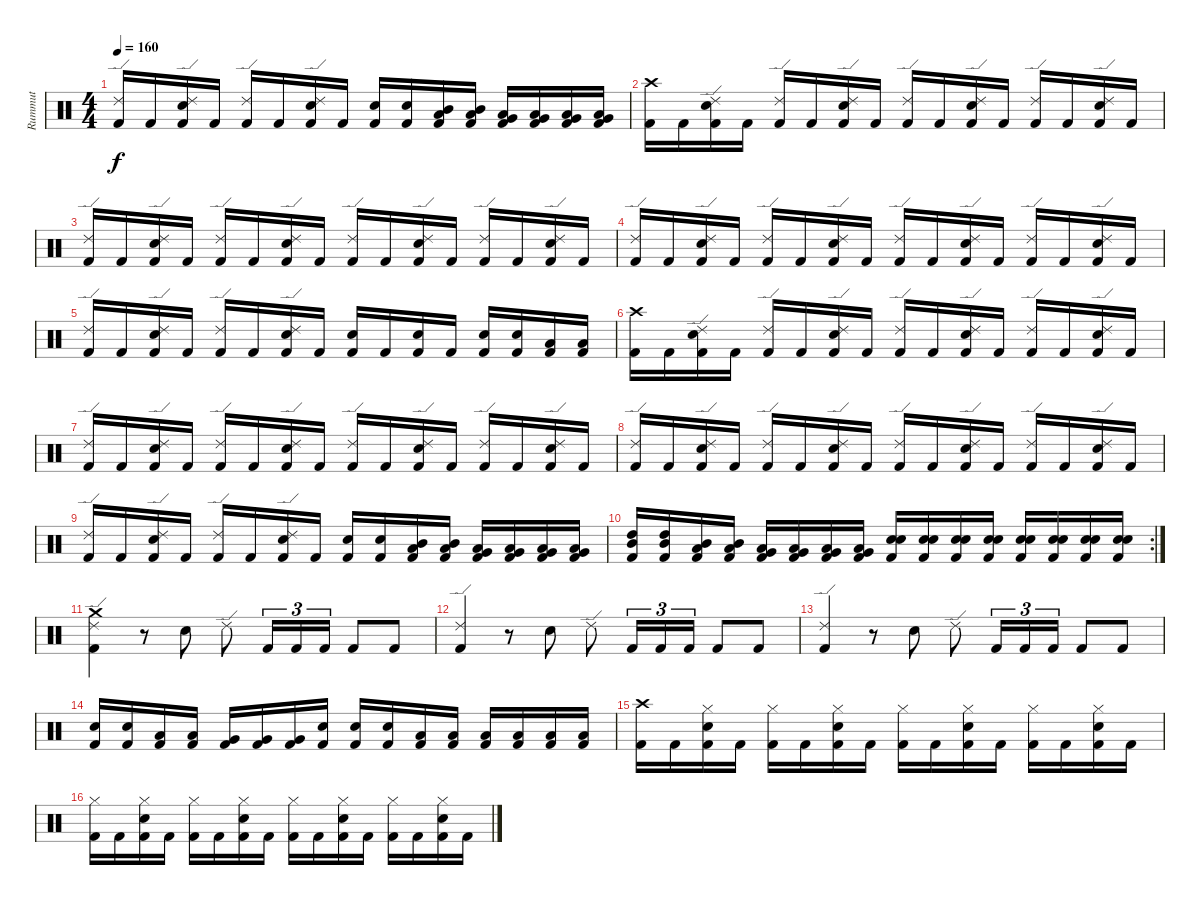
\track ("Rummut" "Rummut") {instrument percussion}
\staff {score}
\articulation defaults
\ts (4 4)
\tempo 160
\clef neutral
\ks c
("Ride (edge) 2" "Kick (hit) 2").16{dy f} "Kick (hit) 2".16 ("Ride (edge) 2" "Snare (hit) 2" "Kick (hit) 2").16 "Kick (hit) 2".16 ("Ride (edge) 2" "Kick (hit) 2").16 "Kick (hit) 2".16 ("Ride (edge) 2" "Snare (hit) 2" "Kick (hit) 2").16 "Kick (hit) 2".16 ("Snare (hit) 2" "Kick (hit) 2").16 ("Snare (hit) 2" "Kick (hit) 2").16 ("Low Tom (hit)" "Mid Tom (hit)" "Kick (hit) 2").16 ("Low Tom (hit)" "Mid Tom (hit)" "Kick (hit) 2").16 ("Very Low Tom (hit)" "Low Tom (hit)" "Kick (hit) 2").16 ("Very Low Tom (hit)" "Low Tom (hit)" "Kick (hit) 2").16 ("Low Floor Tom (hit)" "Very Low Tom (hit)" "Kick (hit) 2").16 ("Low Floor Tom (hit)" "Very Low Tom (hit)" "Kick (hit) 2").16 |
("Crash high (hit)" "Kick (hit) 2").16 "Kick (hit) 2".16 ("Ride (edge) 2" "Snare (hit) 2" "Kick (hit) 2").16 "Kick (hit) 2".16 ("Ride (edge) 2" "Kick (hit) 2").16 "Kick (hit) 2".16 ("Ride (edge) 2" "Snare (hit) 2" "Kick (hit) 2").16 "Kick (hit) 2".16 ("Ride (edge) 2" "Kick (hit) 2").16 "Kick (hit) 2".16 ("Ride (edge) 2" "Snare (hit) 2" "Kick (hit) 2").16 "Kick (hit) 2".16 ("Ride (edge) 2" "Kick (hit) 2").16 "Kick (hit) 2".16 ("Ride (edge) 2" "Snare (hit) 2" "Kick (hit) 2").16 "Kick (hit) 2".16 |
("Ride (edge) 2" "Kick (hit) 2").16 "Kick (hit) 2".16 ("Ride (edge) 2" "Snare (hit) 2" "Kick (hit) 2").16 "Kick (hit) 2".16 ("Ride (edge) 2" "Kick (hit) 2").16 "Kick (hit) 2".16 ("Ride (edge) 2" "Snare (hit) 2" "Kick (hit) 2").16 "Kick (hit) 2".16 ("Ride (edge) 2" "Kick (hit) 2").16 "Kick (hit) 2".16 ("Ride (edge) 2" "Snare (hit) 2" "Kick (hit) 2").16 "Kick (hit) 2".16 ("Ride (edge) 2" "Kick (hit) 2").16 "Kick (hit) 2".16 ("Ride (edge) 2" "Snare (hit) 2" "Kick (hit) 2").16 "Kick (hit) 2".16 |
("Ride (edge) 2" "Kick (hit) 2").16 "Kick (hit) 2".16 ("Ride (edge) 2" "Snare (hit) 2" "Kick (hit) 2").16 "Kick (hit) 2".16 ("Ride (edge) 2" "Kick (hit) 2").16 "Kick (hit) 2".16 ("Ride (edge) 2" "Snare (hit) 2" "Kick (hit) 2").16 "Kick (hit) 2".16 ("Ride (edge) 2" "Kick (hit) 2").16 "Kick (hit) 2".16 ("Ride (edge) 2" "Snare (hit) 2" "Kick (hit) 2").16 "Kick (hit) 2".16 ("Ride (edge) 2" "Kick (hit) 2").16 "Kick (hit) 2".16 ("Ride (edge) 2" "Snare (hit) 2" "Kick (hit) 2").16 "Kick (hit) 2".16 |
("Ride (edge) 2" "Kick (hit) 2").16 "Kick (hit) 2".16 ("Ride (edge) 2" "Snare (hit) 2" "Kick (hit) 2").16 "Kick (hit) 2".16 ("Ride (edge) 2" "Kick (hit) 2").16 "Kick (hit) 2".16 ("Ride (edge) 2" "Snare (hit) 2" "Kick (hit) 2").16 "Kick (hit) 2".16 ("Snare (hit) 2" "Kick (hit) 2").16 "Kick (hit) 2".16 ("Snare (hit) 2" "Kick (hit) 2").16 "Kick (hit) 2".16 ("Snare (hit) 2" "Kick (hit) 2").16 ("Snare (hit) 2" "Kick (hit) 2").16 ("Low Tom (hit)" "Kick (hit) 2").16 ("Low Tom (hit)" "Kick (hit) 2").16 |
("Crash high (hit)" "Kick (hit) 2").16 "Kick (hit) 2".16 ("Ride (edge) 2" "Snare (hit) 2" "Kick (hit) 2").16 "Kick (hit) 2".16 ("Ride (edge) 2" "Kick (hit) 2").16 "Kick (hit) 2".16 ("Ride (edge) 2" "Snare (hit) 2" "Kick (hit) 2").16 "Kick (hit) 2".16 ("Ride (edge) 2" "Kick (hit) 2").16 "Kick (hit) 2".16 ("Ride (edge) 2" "Snare (hit) 2" "Kick (hit) 2").16 "Kick (hit) 2".16 ("Ride (edge) 2" "Kick (hit) 2").16 "Kick (hit) 2".16 ("Ride (edge) 2" "Snare (hit) 2" "Kick (hit) 2").16 "Kick (hit) 2".16 |
("Ride (edge) 2" "Kick (hit) 2").16 "Kick (hit) 2".16 ("Ride (edge) 2" "Snare (hit) 2" "Kick (hit) 2").16 "Kick (hit) 2".16 ("Ride (edge) 2" "Kick (hit) 2").16 "Kick (hit) 2".16 ("Ride (edge) 2" "Snare (hit) 2" "Kick (hit) 2").16 "Kick (hit) 2".16 ("Ride (edge) 2" "Kick (hit) 2").16 "Kick (hit) 2".16 ("Ride (edge) 2" "Snare (hit) 2" "Kick (hit) 2").16 "Kick (hit) 2".16 ("Ride (edge) 2" "Kick (hit) 2").16 "Kick (hit) 2".16 ("Ride (edge) 2" "Snare (hit) 2" "Kick (hit) 2").16 "Kick (hit) 2".16 |
("Ride (edge) 2" "Kick (hit) 2").16 "Kick (hit) 2".16 ("Ride (edge) 2" "Snare (hit) 2" "Kick (hit) 2").16 "Kick (hit) 2".16 ("Ride (edge) 2" "Kick (hit) 2").16 "Kick (hit) 2".16 ("Ride (edge) 2" "Snare (hit) 2" "Kick (hit) 2").16 "Kick (hit) 2".16 ("Ride (edge) 2" "Kick (hit) 2").16 "Kick (hit) 2".16 ("Ride (edge) 2" "Snare (hit) 2" "Kick (hit) 2").16 "Kick (hit) 2".16 ("Ride (edge) 2" "Kick (hit) 2").16 "Kick (hit) 2".16 ("Ride (edge) 2" "Snare (hit) 2" "Kick (hit) 2").16 "Kick (hit) 2".16 |
("Ride (edge) 2" "Kick (hit) 2").16 "Kick (hit) 2".16 ("Ride (edge) 2" "Snare (hit) 2" "Kick (hit) 2").16 "Kick (hit) 2".16 ("Ride (edge) 2" "Kick (hit) 2").16 "Kick (hit) 2".16 ("Ride (edge) 2" "Snare (hit) 2" "Kick (hit) 2").16 "Kick (hit) 2".16 ("Snare (hit) 2" "Kick (hit) 2").16 ("Snare (hit) 2" "Kick (hit) 2").16 ("Low Tom (hit)" "Mid Tom (hit)" "Kick (hit) 2").16 ("Low Tom (hit)" "Mid Tom (hit)" "Kick (hit) 2").16 ("Very Low Tom (hit)" "Low Tom (hit)" "Kick (hit) 2").16 ("Very Low Tom (hit)" "Low Tom (hit)" "Kick (hit) 2").16 ("Low Floor Tom (hit)" "Very Low Tom (hit)" "Kick (hit) 2").16 ("Low Floor Tom (hit)" "Very Low Tom (hit)" "Kick (hit) 2").16 |
\rc 2
("Mid Tom (hit)" "High Tom (hit)" "Kick (hit) 2").16 ("Mid Tom (hit)" "High Tom (hit)" "Kick (hit) 2").16 ("Low Tom (hit)" "Mid Tom (hit)" "Kick (hit) 2").16 ("Low Tom (hit)" "Mid Tom (hit)" "Kick (hit) 2").16 ("Very Low Tom (hit)" "Low Tom (hit)" "Kick (hit) 2").16 ("Very Low Tom (hit)" "Low Tom (hit)" "Kick (hit) 2").16 ("Low Floor Tom (hit)" "Very Low Tom (hit)" "Kick (hit) 2").16 ("Low Floor Tom (hit)" "Very Low Tom (hit)" "Kick (hit) 2").16 ("Snare (hit) 2" "Snare (hit) 2" "Kick (hit) 2").16 ("Snare (hit) 2" "Snare (hit) 2" "Kick (hit) 2").16 ("Snare (hit) 2" "Snare (hit) 2" "Kick (hit) 2").16 ("Snare (hit) 2" "Snare (hit) 2" "Kick (hit) 2").16 ("Snare (hit) 2" "Snare (hit) 2" "Kick (hit) 2").16 ("Snare (hit) 2" "Snare (hit) 2" "Kick (hit) 2").16 ("Snare (hit) 2" "Snare (hit) 2" "Kick (hit) 2").16 ("Snare (hit) 2" "Snare (hit) 2" "Kick (hit) 2").16 |
("Crash medium (hit)" "Ride (edge) 2" "Kick (hit) 2").4 r.8 "Electric Snare (hit)".8 "Ride (edge) 2".8 "Kick (hit) 2".16{tu (3 2)} "Kick (hit) 2".16{tu (3 2)} "Kick (hit) 2".16{tu (3 2)} "Kick (hit) 2".8 "Kick (hit) 2".8 |
("Ride (edge) 2" "Kick (hit) 2").4 r.8 "Electric Snare (hit)".8 "Ride (edge) 2".8 "Kick (hit) 2".16{tu (3 2)} "Kick (hit) 2".16{tu (3 2)} "Kick (hit) 2".16{tu (3 2)} "Kick (hit) 2".8 "Kick (hit) 2".8 |
("Ride (edge) 2" "Kick (hit) 2").4 r.8 "Electric Snare (hit)".8 "Ride (edge) 2".8 "Kick (hit) 2".16{tu (3 2)} "Kick (hit) 2".16{tu (3 2)} "Kick (hit) 2".16{tu (3 2)} "Kick (hit) 2".8 "Kick (hit) 2".8 |
("Electric Snare (hit)" "Kick (hit) 2").16 ("Electric Snare (hit)" "Kick (hit) 2").16 ("Low Tom (hit)" "Kick (hit) 2").16 ("Low Tom (hit)" "Kick (hit) 2").16 ("Very Low Tom (hit)" "Kick (hit) 2").16 ("Very Low Tom (hit)" "Kick (hit) 2").16 ("Very Low Tom (hit)" "Kick (hit) 2").16 ("Electric Snare (hit)" "Kick (hit) 2").16 ("Electric Snare (hit)" "Kick (hit) 2").16 ("Electric Snare (hit)" "Kick (hit) 2").16 ("Low Floor Tom (hit)" "Kick (hit) 2").16 ("Low Floor Tom (hit)" "Kick (hit) 2").16 ("Low Floor Tom (hit)" "Kick (hit) 2").16 ("Low Floor Tom (hit)" "Kick (hit) 2").16 ("Low Floor Tom (hit)" "Kick (hit) 2").16 ("Low Floor Tom (hit)" "Kick (hit) 2").16 |
("Crash high (hit)" "Kick (hit) 2").16 "Kick (hit) 2".16 ("Hi-Hat (closed)" "Snare (hit) 2" "Kick (hit) 2").16 "Kick (hit) 2".16 ("Hi-Hat (closed)" "Kick (hit) 2").16 "Kick (hit) 2".16 ("Hi-Hat (closed)" "Snare (hit) 2" "Kick (hit) 2").16 "Kick (hit) 2".16 ("Hi-Hat (closed)" "Kick (hit) 2").16 "Kick (hit) 2".16 ("Hi-Hat (closed)" "Snare (hit) 2" "Kick (hit) 2").16 "Kick (hit) 2".16 ("Hi-Hat (closed)" "Kick (hit) 2").16 "Kick (hit) 2".16 ("Hi-Hat (closed)" "Snare (hit) 2" "Kick (hit) 2").16 "Kick (hit) 2".16 |
("Hi-Hat (closed)" "Kick (hit) 2").16 "Kick (hit) 2".16 ("Hi-Hat (closed)" "Snare (hit) 2" "Kick (hit) 2").16 "Kick (hit) 2".16 ("Hi-Hat (closed)" "Kick (hit) 2").16 "Kick (hit) 2".16 ("Hi-Hat (closed)" "Snare (hit) 2" "Kick (hit) 2").16 "Kick (hit) 2".16 ("Hi-Hat (closed)" "Kick (hit) 2").16 "Kick (hit) 2".16 ("Hi-Hat (closed)" "Snare (hit) 2" "Kick (hit) 2").16 "Kick (hit) 2".16 ("Hi-Hat (closed)" "Kick (hit) 2").16 "Kick (hit) 2".16 ("Hi-Hat (closed)" "Snare (hit) 2" "Kick (hit) 2").16 "Kick (hit) 2".16
